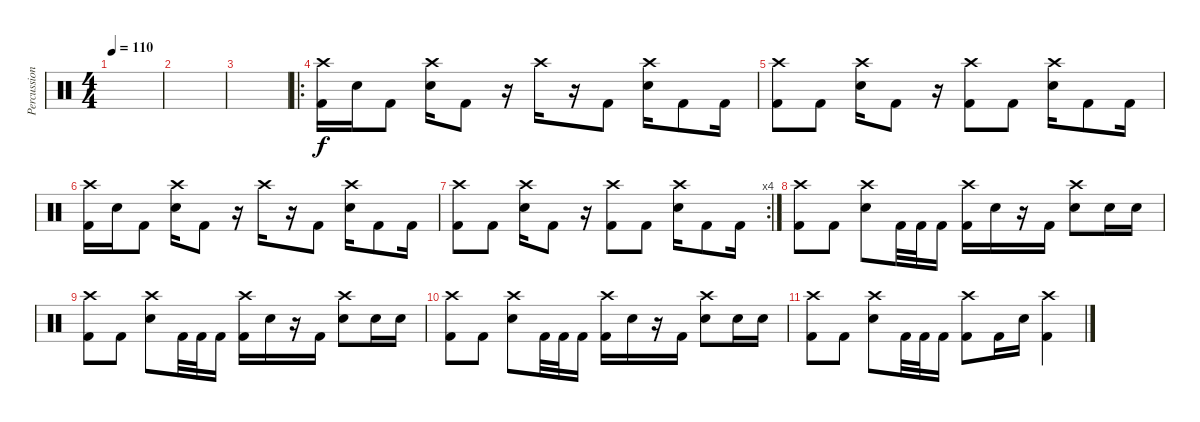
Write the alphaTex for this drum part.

\track ("Percussion" "Percussion") {instrument percussion}
\staff {score}
\articulation defaults
\ts (4 4)
\tempo 110
\clef neutral
\ks c
|
|
|
\ro
("Crash high (hit)" "Kick (hit) 2").16 "Snare (hit) 2".16 "Kick (hit) 2".8 ("Crash high (hit)" "Snare (hit) 2").16 "Kick (hit) 2".8 r.16 "Crash high (hit)".16 r.16 "Kick (hit) 2".8 ("Crash high (hit)" "Snare (hit) 2").16 "Kick (hit) 2".8 "Kick (hit) 2".16 |
("Crash high (hit)" "Kick (hit) 2").8 "Kick (hit) 2".8 ("Crash high (hit)" "Snare (hit) 2").16 "Kick (hit) 2".8 r.16 ("Crash high (hit)" "Kick (hit) 2").8 "Kick (hit) 2".8 ("Crash high (hit)" "Snare (hit) 2").16 "Kick (hit) 2".8 "Kick (hit) 2".16 |
("Crash high (hit)" "Kick (hit) 2").16 "Snare (hit) 2".16 "Kick (hit) 2".8 ("Crash high (hit)" "Snare (hit) 2").16 "Kick (hit) 2".8 r.16 "Crash high (hit)".16 r.16 "Kick (hit) 2".8 ("Crash high (hit)" "Snare (hit) 2").16 "Kick (hit) 2".8 "Kick (hit) 2".16 |
\rc 4
("Crash high (hit)" "Kick (hit) 2").8 "Kick (hit) 2".8 ("Crash high (hit)" "Snare (hit) 2").16 "Kick (hit) 2".8 r.16 ("Crash high (hit)" "Kick (hit) 2").8 "Kick (hit) 2".8 ("Crash high (hit)" "Snare (hit) 2").16 "Kick (hit) 2".8 "Kick (hit) 2".16 |
("Crash high (hit)" "Kick (hit) 2").8 "Kick (hit) 2".8 ("Crash high (hit)" "Snare (hit) 2").8 "Kick (hit) 2".32 "Kick (hit) 2".32 "Kick (hit) 2".16 ("Crash high (hit)" "Kick (hit) 2").16 "Snare (hit) 2".16 r.16 "Kick (hit) 2".16 ("Crash high (hit)" "Snare (hit) 2").8 "Snare (hit) 2".16 "Snare (hit) 2".16 |
("Crash high (hit)" "Kick (hit) 2").8 "Kick (hit) 2".8 ("Crash high (hit)" "Snare (hit) 2").8 "Kick (hit) 2".32 "Kick (hit) 2".32 "Kick (hit) 2".16 ("Crash high (hit)" "Kick (hit) 2").16 "Snare (hit) 2".16 r.16 "Kick (hit) 2".16 ("Crash high (hit)" "Snare (hit) 2").8 "Snare (hit) 2".16 "Snare (hit) 2".16 |
("Crash high (hit)" "Kick (hit) 2").8 "Kick (hit) 2".8 ("Crash high (hit)" "Snare (hit) 2").8 "Kick (hit) 2".32 "Kick (hit) 2".32 "Kick (hit) 2".16 ("Crash high (hit)" "Kick (hit) 2").16 "Snare (hit) 2".16 r.16 "Kick (hit) 2".16 ("Crash high (hit)" "Snare (hit) 2").8 "Snare (hit) 2".16 "Snare (hit) 2".16 |
("Crash high (hit)" "Kick (hit) 2").8 "Kick (hit) 2".8 ("Crash high (hit)" "Snare (hit) 2").8 "Kick (hit) 2".32 "Kick (hit) 2".32 "Kick (hit) 2".16 ("Crash high (hit)" "Kick (hit) 2").8 "Kick (hit) 2".16 "Snare (hit) 2".16 ("Crash high (hit)" "Kick (hit) 2").4
